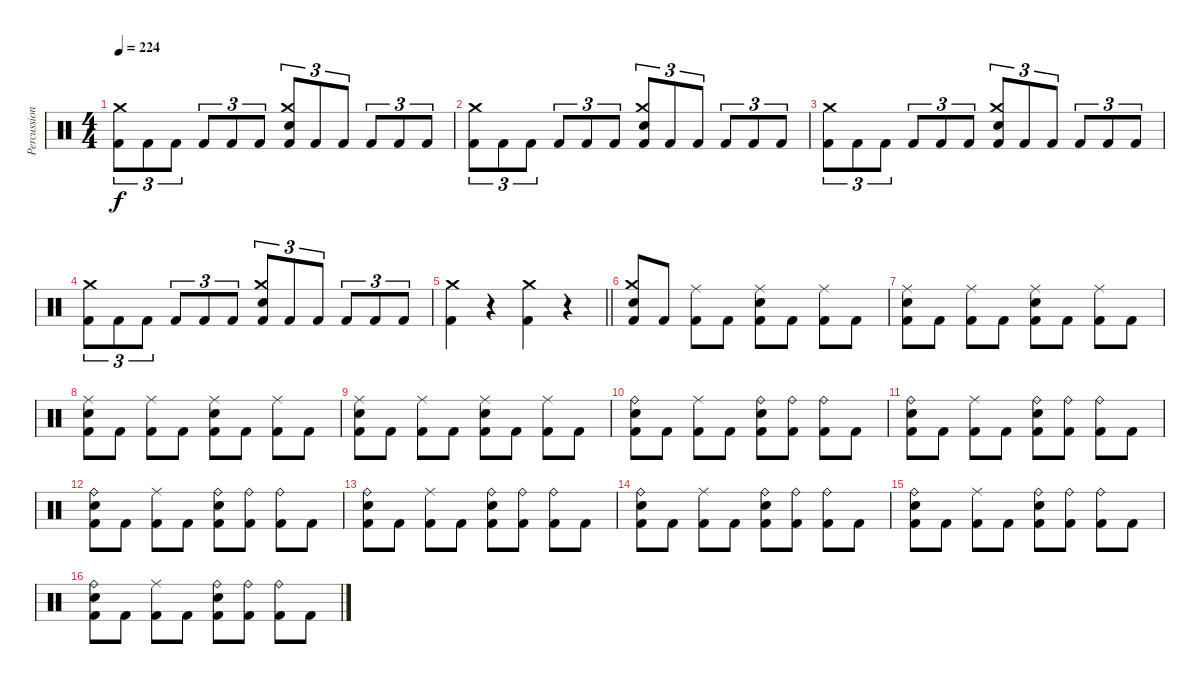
\track ("Percussion" "Percussion") {instrument percussion}
\staff {score}
\articulation defaults
\ts (4 4)
\tempo 224
\clef neutral
\ks c
("Kick (hit) 2" "Crash medium (hit)").8{tu (3 2) dy f} "Kick (hit) 2".8{tu (3 2)} "Kick (hit) 2".8{tu (3 2)} "Kick (hit) 2".8{tu (3 2)} "Kick (hit) 2".8{tu (3 2)} "Kick (hit) 2".8{tu (3 2)} ("Kick (hit) 2" "Snare (hit) 2" "Crash medium (hit)").8{tu (3 2)} "Kick (hit) 2".8{tu (3 2)} "Kick (hit) 2".8{tu (3 2)} "Kick (hit) 2".8{tu (3 2)} "Kick (hit) 2".8{tu (3 2)} "Kick (hit) 2".8{tu (3 2)} |
("Kick (hit) 2" "Crash medium (hit)").8{tu (3 2)} "Kick (hit) 2".8{tu (3 2)} "Kick (hit) 2".8{tu (3 2)} "Kick (hit) 2".8{tu (3 2)} "Kick (hit) 2".8{tu (3 2)} "Kick (hit) 2".8{tu (3 2)} ("Kick (hit) 2" "Snare (hit) 2" "Crash medium (hit)").8{tu (3 2)} "Kick (hit) 2".8{tu (3 2)} "Kick (hit) 2".8{tu (3 2)} "Kick (hit) 2".8{tu (3 2)} "Kick (hit) 2".8{tu (3 2)} "Kick (hit) 2".8{tu (3 2)} |
("Kick (hit) 2" "Crash medium (hit)").8{tu (3 2)} "Kick (hit) 2".8{tu (3 2)} "Kick (hit) 2".8{tu (3 2)} "Kick (hit) 2".8{tu (3 2)} "Kick (hit) 2".8{tu (3 2)} "Kick (hit) 2".8{tu (3 2)} ("Kick (hit) 2" "Snare (hit) 2" "Crash medium (hit)").8{tu (3 2)} "Kick (hit) 2".8{tu (3 2)} "Kick (hit) 2".8{tu (3 2)} "Kick (hit) 2".8{tu (3 2)} "Kick (hit) 2".8{tu (3 2)} "Kick (hit) 2".8{tu (3 2)} |
("Kick (hit) 2" "Crash medium (hit)").8{tu (3 2)} "Kick (hit) 2".8{tu (3 2)} "Kick (hit) 2".8{tu (3 2)} "Kick (hit) 2".8{tu (3 2)} "Kick (hit) 2".8{tu (3 2)} "Kick (hit) 2".8{tu (3 2)} ("Kick (hit) 2" "Snare (hit) 2" "Crash medium (hit)").8{tu (3 2)} "Kick (hit) 2".8{tu (3 2)} "Kick (hit) 2".8{tu (3 2)} "Kick (hit) 2".8{tu (3 2)} "Kick (hit) 2".8{tu (3 2)} "Kick (hit) 2".8{tu (3 2)} |
\barLineRight lightlight
("Kick (hit) 2" "Crash medium (hit)").4 r.4 ("Kick (hit) 2" "Crash medium (hit)").4 r.4 |
("Kick (hit) 2" "Snare (hit) 2" "Crash medium (hit)").8 "Kick (hit) 2".8 ("Kick (hit) 2" "Ride (middle)").8 "Kick (hit) 2".8 ("Kick (hit) 2" "Snare (hit) 2" "Ride (middle)").8 "Kick (hit) 2".8 ("Kick (hit) 2" "Ride (middle)").8 "Kick (hit) 2".8 |
("Kick (hit) 2" "Snare (hit) 2" "Ride (middle)").8 "Kick (hit) 2".8 ("Kick (hit) 2" "Ride (middle)").8 "Kick (hit) 2".8 ("Kick (hit) 2" "Snare (hit) 2" "Ride (middle)").8 "Kick (hit) 2".8 ("Kick (hit) 2" "Ride (middle)").8 "Kick (hit) 2".8 |
("Kick (hit) 2" "Snare (hit) 2" "Ride (middle)").8 "Kick (hit) 2".8 ("Kick (hit) 2" "Ride (middle)").8 "Kick (hit) 2".8 ("Kick (hit) 2" "Snare (hit) 2" "Ride (middle)").8 "Kick (hit) 2".8 ("Kick (hit) 2" "Ride (middle)").8 "Kick (hit) 2".8 |
("Kick (hit) 2" "Snare (hit) 2" "Ride (middle)").8 "Kick (hit) 2".8 ("Kick (hit) 2" "Ride (middle)").8 "Kick (hit) 2".8 ("Kick (hit) 2" "Snare (hit) 2" "Ride (middle)").8 "Kick (hit) 2".8 ("Kick (hit) 2" "Ride (middle)").8 "Kick (hit) 2".8 |
("Kick (hit) 2" "Snare (hit) 2" "Ride (bell)").8 "Kick (hit) 2".8 ("Kick (hit) 2" "Ride (middle)").8 "Kick (hit) 2".8 ("Kick (hit) 2" "Snare (hit) 2" "Ride (bell)").8 ("Kick (hit) 2" "Ride (bell)").8 ("Kick (hit) 2" "Ride (bell)").8 "Kick (hit) 2".8 |
("Kick (hit) 2" "Snare (hit) 2" "Ride (bell)").8 "Kick (hit) 2".8 ("Kick (hit) 2" "Ride (middle)").8 "Kick (hit) 2".8 ("Kick (hit) 2" "Snare (hit) 2" "Ride (bell)").8 ("Kick (hit) 2" "Ride (bell)").8 ("Kick (hit) 2" "Ride (bell)").8 "Kick (hit) 2".8 |
("Kick (hit) 2" "Snare (hit) 2" "Ride (bell)").8 "Kick (hit) 2".8 ("Kick (hit) 2" "Ride (middle)").8 "Kick (hit) 2".8 ("Kick (hit) 2" "Snare (hit) 2" "Ride (bell)").8 ("Kick (hit) 2" "Ride (bell)").8 ("Kick (hit) 2" "Ride (bell)").8 "Kick (hit) 2".8 |
("Kick (hit) 2" "Snare (hit) 2" "Ride (bell)").8 "Kick (hit) 2".8 ("Kick (hit) 2" "Ride (middle)").8 "Kick (hit) 2".8 ("Kick (hit) 2" "Snare (hit) 2" "Ride (bell)").8 ("Kick (hit) 2" "Ride (bell)").8 ("Kick (hit) 2" "Ride (bell)").8 "Kick (hit) 2".8 |
("Kick (hit) 2" "Snare (hit) 2" "Ride (bell)").8 "Kick (hit) 2".8 ("Kick (hit) 2" "Ride (middle)").8 "Kick (hit) 2".8 ("Kick (hit) 2" "Snare (hit) 2" "Ride (bell)").8 ("Kick (hit) 2" "Ride (bell)").8 ("Kick (hit) 2" "Ride (bell)").8 "Kick (hit) 2".8 |
("Kick (hit) 2" "Snare (hit) 2" "Ride (bell)").8 "Kick (hit) 2".8 ("Kick (hit) 2" "Ride (middle)").8 "Kick (hit) 2".8 ("Kick (hit) 2" "Snare (hit) 2" "Ride (bell)").8 ("Kick (hit) 2" "Ride (bell)").8 ("Kick (hit) 2" "Ride (bell)").8 "Kick (hit) 2".8 |
("Kick (hit) 2" "Snare (hit) 2" "Ride (bell)").8 "Kick (hit) 2".8 ("Kick (hit) 2" "Ride (middle)").8 "Kick (hit) 2".8 ("Kick (hit) 2" "Snare (hit) 2" "Ride (bell)").8 ("Kick (hit) 2" "Ride (bell)").8 ("Kick (hit) 2" "Ride (bell)").8 "Kick (hit) 2".8
